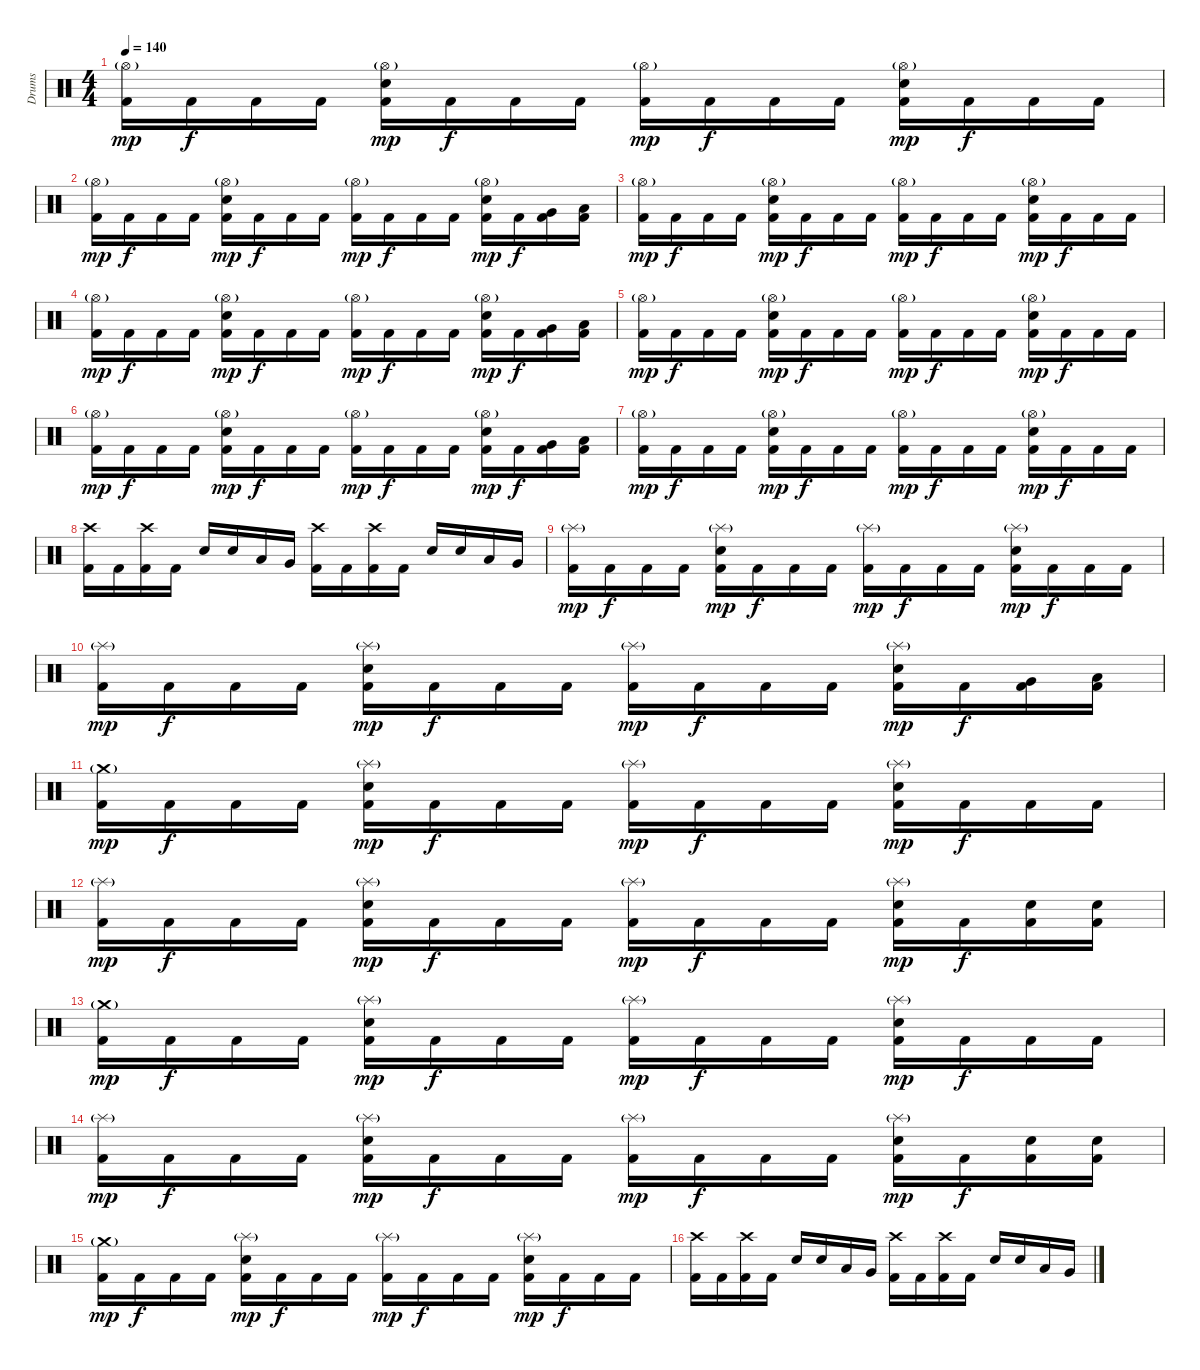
\track ("Drums" "Drums") {instrument percussion}
\staff {score}
\articulation defaults
\ts (4 4)
\tempo 140
\clef neutral
\ks c
("Hi-Hat (open)"{g} "Kick (hit) 2").16{dy mp} "Kick (hit) 2".16{dy f} "Kick (hit) 2".16 "Kick (hit) 2".16 ("Hi-Hat (open)"{g} "Electric Snare (hit)" "Kick (hit) 2").16{dy mp} "Kick (hit) 2".16{dy f} "Kick (hit) 2".16 "Kick (hit) 2".16 ("Hi-Hat (open)"{g} "Kick (hit) 2").16{dy mp} "Kick (hit) 2".16{dy f} "Kick (hit) 2".16 "Kick (hit) 2".16 ("Hi-Hat (open)"{g} "Electric Snare (hit)" "Kick (hit) 2").16{dy mp} "Kick (hit) 2".16{dy f} "Kick (hit) 2".16 "Kick (hit) 2".16 |
("Hi-Hat (open)"{g} "Kick (hit) 2").16{dy mp} "Kick (hit) 2".16{dy f} "Kick (hit) 2".16 "Kick (hit) 2".16 ("Hi-Hat (open)"{g} "Electric Snare (hit)" "Kick (hit) 2").16{dy mp} "Kick (hit) 2".16{dy f} "Kick (hit) 2".16 "Kick (hit) 2".16 ("Hi-Hat (open)"{g} "Kick (hit) 2").16{dy mp} "Kick (hit) 2".16{dy f} "Kick (hit) 2".16 "Kick (hit) 2".16 ("Hi-Hat (open)"{g} "Electric Snare (hit)" "Kick (hit) 2").16{dy mp} "Kick (hit) 2".16{dy f} ("Very Low Tom (hit)" "Kick (hit) 2").16 ("Low Floor Tom (hit)" "Kick (hit) 2").16 |
("Hi-Hat (open)"{g} "Kick (hit) 2").16{dy mp} "Kick (hit) 2".16{dy f} "Kick (hit) 2".16 "Kick (hit) 2".16 ("Hi-Hat (open)"{g} "Electric Snare (hit)" "Kick (hit) 2").16{dy mp} "Kick (hit) 2".16{dy f} "Kick (hit) 2".16 "Kick (hit) 2".16 ("Hi-Hat (open)"{g} "Kick (hit) 2").16{dy mp} "Kick (hit) 2".16{dy f} "Kick (hit) 2".16 "Kick (hit) 2".16 ("Hi-Hat (open)"{g} "Electric Snare (hit)" "Kick (hit) 2").16{dy mp} "Kick (hit) 2".16{dy f} "Kick (hit) 2".16 "Kick (hit) 2".16 |
("Hi-Hat (open)"{g} "Kick (hit) 2").16{dy mp} "Kick (hit) 2".16{dy f} "Kick (hit) 2".16 "Kick (hit) 2".16 ("Hi-Hat (open)"{g} "Electric Snare (hit)" "Kick (hit) 2").16{dy mp} "Kick (hit) 2".16{dy f} "Kick (hit) 2".16 "Kick (hit) 2".16 ("Hi-Hat (open)"{g} "Kick (hit) 2").16{dy mp} "Kick (hit) 2".16{dy f} "Kick (hit) 2".16 "Kick (hit) 2".16 ("Hi-Hat (open)"{g} "Electric Snare (hit)" "Kick (hit) 2").16{dy mp} "Kick (hit) 2".16{dy f} ("Very Low Tom (hit)" "Kick (hit) 2").16 ("Low Floor Tom (hit)" "Kick (hit) 2").16 |
("Hi-Hat (open)"{g} "Kick (hit) 2").16{dy mp} "Kick (hit) 2".16{dy f} "Kick (hit) 2".16 "Kick (hit) 2".16 ("Hi-Hat (open)"{g} "Electric Snare (hit)" "Kick (hit) 2").16{dy mp} "Kick (hit) 2".16{dy f} "Kick (hit) 2".16 "Kick (hit) 2".16 ("Hi-Hat (open)"{g} "Kick (hit) 2").16{dy mp} "Kick (hit) 2".16{dy f} "Kick (hit) 2".16 "Kick (hit) 2".16 ("Hi-Hat (open)"{g} "Electric Snare (hit)" "Kick (hit) 2").16{dy mp} "Kick (hit) 2".16{dy f} "Kick (hit) 2".16 "Kick (hit) 2".16 |
("Hi-Hat (open)"{g} "Kick (hit) 2").16{dy mp} "Kick (hit) 2".16{dy f} "Kick (hit) 2".16 "Kick (hit) 2".16 ("Hi-Hat (open)"{g} "Electric Snare (hit)" "Kick (hit) 2").16{dy mp} "Kick (hit) 2".16{dy f} "Kick (hit) 2".16 "Kick (hit) 2".16 ("Hi-Hat (open)"{g} "Kick (hit) 2").16{dy mp} "Kick (hit) 2".16{dy f} "Kick (hit) 2".16 "Kick (hit) 2".16 ("Hi-Hat (open)"{g} "Electric Snare (hit)" "Kick (hit) 2").16{dy mp} "Kick (hit) 2".16{dy f} ("Very Low Tom (hit)" "Kick (hit) 2").16 ("Low Floor Tom (hit)" "Kick (hit) 2").16 |
("Hi-Hat (open)"{g} "Kick (hit) 2").16{dy mp} "Kick (hit) 2".16{dy f} "Kick (hit) 2".16 "Kick (hit) 2".16 ("Hi-Hat (open)"{g} "Electric Snare (hit)" "Kick (hit) 2").16{dy mp} "Kick (hit) 2".16{dy f} "Kick (hit) 2".16 "Kick (hit) 2".16 ("Hi-Hat (open)"{g} "Kick (hit) 2").16{dy mp} "Kick (hit) 2".16{dy f} "Kick (hit) 2".16 "Kick (hit) 2".16 ("Hi-Hat (open)"{g} "Electric Snare (hit)" "Kick (hit) 2").16{dy mp} "Kick (hit) 2".16{dy f} "Kick (hit) 2".16 "Kick (hit) 2".16 |
("Crash high (hit)" "Kick (hit) 2").16 "Kick (hit) 2".16 ("Crash high (hit)" "Kick (hit) 2").16 "Kick (hit) 2".16 "Electric Snare (hit)".16 "Electric Snare (hit)".16 "Low Tom (hit)".16 "Very Low Tom (hit)".16 ("Crash high (hit)" "Kick (hit) 2").16 "Kick (hit) 2".16 ("Crash high (hit)" "Kick (hit) 2").16 "Kick (hit) 2".16 "Electric Snare (hit)".16 "Electric Snare (hit)".16 "Low Tom (hit)".16 "Very Low Tom (hit)".16 |
("Splash (hit)"{g} "Kick (hit) 2").16{dy mp} "Kick (hit) 2".16{dy f} "Kick (hit) 2".16 "Kick (hit) 2".16 ("Splash (hit)"{g} "Electric Snare (hit)" "Kick (hit) 2").16{dy mp} "Kick (hit) 2".16{dy f} "Kick (hit) 2".16 "Kick (hit) 2".16 ("Splash (hit)"{g} "Kick (hit) 2").16{dy mp} "Kick (hit) 2".16{dy f} "Kick (hit) 2".16 "Kick (hit) 2".16 ("Splash (hit)"{g} "Electric Snare (hit)" "Kick (hit) 2").16{dy mp} "Kick (hit) 2".16{dy f} "Kick (hit) 2".16 "Kick (hit) 2".16 |
("Splash (hit)"{g} "Kick (hit) 2").16{dy mp} "Kick (hit) 2".16{dy f} "Kick (hit) 2".16 "Kick (hit) 2".16 ("Splash (hit)"{g} "Electric Snare (hit)" "Kick (hit) 2").16{dy mp} "Kick (hit) 2".16{dy f} "Kick (hit) 2".16 "Kick (hit) 2".16 ("Splash (hit)"{g} "Kick (hit) 2").16{dy mp} "Kick (hit) 2".16{dy f} "Kick (hit) 2".16 "Kick (hit) 2".16 ("Splash (hit)"{g} "Electric Snare (hit)" "Kick (hit) 2").16{dy mp} "Kick (hit) 2".16{dy f} ("Very Low Tom (hit)" "Kick (hit) 2").16 ("Low Floor Tom (hit)" "Kick (hit) 2").16 |
("Crash medium (hit)"{g} "Kick (hit) 2").16{dy mp} "Kick (hit) 2".16{dy f} "Kick (hit) 2".16 "Kick (hit) 2".16 ("Splash (hit)"{g} "Electric Snare (hit)" "Kick (hit) 2").16{dy mp} "Kick (hit) 2".16{dy f} "Kick (hit) 2".16 "Kick (hit) 2".16 ("Splash (hit)"{g} "Kick (hit) 2").16{dy mp} "Kick (hit) 2".16{dy f} "Kick (hit) 2".16 "Kick (hit) 2".16 ("Splash (hit)"{g} "Electric Snare (hit)" "Kick (hit) 2").16{dy mp} "Kick (hit) 2".16{dy f} "Kick (hit) 2".16 "Kick (hit) 2".16 |
("Splash (hit)"{g} "Kick (hit) 2").16{dy mp} "Kick (hit) 2".16{dy f} "Kick (hit) 2".16 "Kick (hit) 2".16 ("Splash (hit)"{g} "Electric Snare (hit)" "Kick (hit) 2").16{dy mp} "Kick (hit) 2".16{dy f} "Kick (hit) 2".16 "Kick (hit) 2".16 ("Splash (hit)"{g} "Kick (hit) 2").16{dy mp} "Kick (hit) 2".16{dy f} "Kick (hit) 2".16 "Kick (hit) 2".16 ("Splash (hit)"{g} "Electric Snare (hit)" "Kick (hit) 2").16{dy mp} "Kick (hit) 2".16{dy f} ("Electric Snare (hit)" "Kick (hit) 2").16 ("Electric Snare (hit)" "Kick (hit) 2").16 |
("Crash medium (hit)"{g} "Kick (hit) 2").16{dy mp} "Kick (hit) 2".16{dy f} "Kick (hit) 2".16 "Kick (hit) 2".16 ("Splash (hit)"{g} "Electric Snare (hit)" "Kick (hit) 2").16{dy mp} "Kick (hit) 2".16{dy f} "Kick (hit) 2".16 "Kick (hit) 2".16 ("Splash (hit)"{g} "Kick (hit) 2").16{dy mp} "Kick (hit) 2".16{dy f} "Kick (hit) 2".16 "Kick (hit) 2".16 ("Splash (hit)"{g} "Electric Snare (hit)" "Kick (hit) 2").16{dy mp} "Kick (hit) 2".16{dy f} "Kick (hit) 2".16 "Kick (hit) 2".16 |
("Splash (hit)"{g} "Kick (hit) 2").16{dy mp} "Kick (hit) 2".16{dy f} "Kick (hit) 2".16 "Kick (hit) 2".16 ("Splash (hit)"{g} "Electric Snare (hit)" "Kick (hit) 2").16{dy mp} "Kick (hit) 2".16{dy f} "Kick (hit) 2".16 "Kick (hit) 2".16 ("Splash (hit)"{g} "Kick (hit) 2").16{dy mp} "Kick (hit) 2".16{dy f} "Kick (hit) 2".16 "Kick (hit) 2".16 ("Splash (hit)"{g} "Electric Snare (hit)" "Kick (hit) 2").16{dy mp} "Kick (hit) 2".16{dy f} ("Electric Snare (hit)" "Kick (hit) 2").16 ("Electric Snare (hit)" "Kick (hit) 2").16 |
("Crash medium (hit)"{g} "Kick (hit) 2").16{dy mp} "Kick (hit) 2".16{dy f} "Kick (hit) 2".16 "Kick (hit) 2".16 ("Splash (hit)"{g} "Electric Snare (hit)" "Kick (hit) 2").16{dy mp} "Kick (hit) 2".16{dy f} "Kick (hit) 2".16 "Kick (hit) 2".16 ("Splash (hit)"{g} "Kick (hit) 2").16{dy mp} "Kick (hit) 2".16{dy f} "Kick (hit) 2".16 "Kick (hit) 2".16 ("Splash (hit)"{g} "Electric Snare (hit)" "Kick (hit) 2").16{dy mp} "Kick (hit) 2".16{dy f} "Kick (hit) 2".16 "Kick (hit) 2".16 |
("Crash high (hit)" "Kick (hit) 2").16 "Kick (hit) 2".16 ("Crash high (hit)" "Kick (hit) 2").16 "Kick (hit) 2".16 "Electric Snare (hit)".16 "Electric Snare (hit)".16 "Low Tom (hit)".16 "Very Low Tom (hit)".16 ("Crash high (hit)" "Kick (hit) 2").16 "Kick (hit) 2".16 ("Crash high (hit)" "Kick (hit) 2").16 "Kick (hit) 2".16 "Electric Snare (hit)".16 "Electric Snare (hit)".16 "Low Tom (hit)".16 "Very Low Tom (hit)".16
